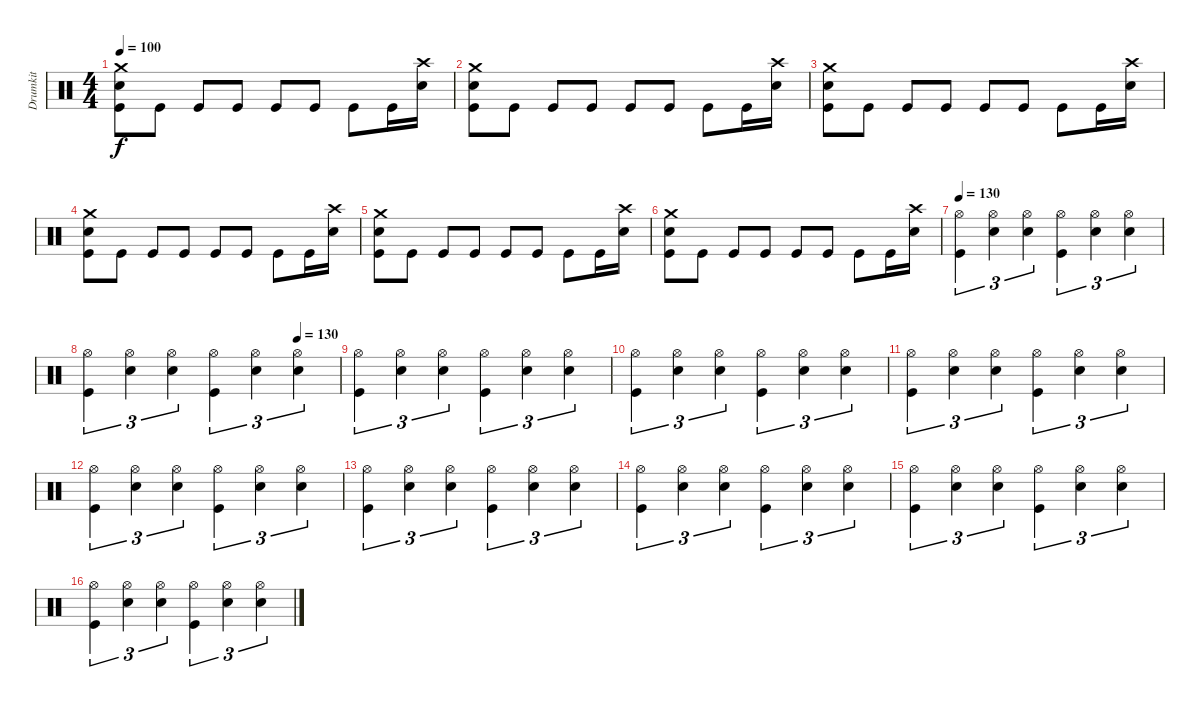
\track ("Drumkit" "Drumkit") {instrument percussion}
\staff {score}
\articulation defaults
\ts (4 4)
\tempo 100
\clef neutral
\ks c
("Crash medium (hit)" "Snare (hit) 2" "Kick (hit)").8{dy f} "Kick (hit)".8 "Kick (hit)".8 "Kick (hit)".8 "Kick (hit)".8 "Kick (hit)".8 "Kick (hit)".8 "Kick (hit)".16 ("Crash high (hit)" "Snare (hit) 2").16 |
("Crash medium (hit)" "Snare (hit) 2" "Kick (hit)").8 "Kick (hit)".8 "Kick (hit)".8 "Kick (hit)".8 "Kick (hit)".8 "Kick (hit)".8 "Kick (hit)".8 "Kick (hit)".16 ("Crash high (hit)" "Snare (hit) 2").16 |
("Crash medium (hit)" "Snare (hit) 2" "Kick (hit)").8 "Kick (hit)".8 "Kick (hit)".8 "Kick (hit)".8 "Kick (hit)".8 "Kick (hit)".8 "Kick (hit)".8 "Kick (hit)".16 ("Crash high (hit)" "Snare (hit) 2").16 |
("Crash medium (hit)" "Snare (hit) 2" "Kick (hit)").8 "Kick (hit)".8 "Kick (hit)".8 "Kick (hit)".8 "Kick (hit)".8 "Kick (hit)".8 "Kick (hit)".8 "Kick (hit)".16 ("Crash high (hit)" "Snare (hit) 2").16 |
("Crash medium (hit)" "Snare (hit) 2" "Kick (hit)").8 "Kick (hit)".8 "Kick (hit)".8 "Kick (hit)".8 "Kick (hit)".8 "Kick (hit)".8 "Kick (hit)".8 "Kick (hit)".16 ("Crash high (hit)" "Snare (hit) 2").16 |
("Crash medium (hit)" "Snare (hit) 2" "Kick (hit)").8 "Kick (hit)".8 "Kick (hit)".8 "Kick (hit)".8 "Kick (hit)".8 "Kick (hit)".8 "Kick (hit)".8 "Kick (hit)".16 ("Crash high (hit)" "Snare (hit) 2").16 |
\tempo 130
("Hi-Hat (open)" "Kick (hit)").4{tu (3 2)} ("Hi-Hat (open)" "Snare (hit) 2").4{tu (3 2)} ("Hi-Hat (open)" "Snare (hit) 2").4{tu (3 2)} ("Hi-Hat (open)" "Kick (hit)").4{tu (3 2)} ("Hi-Hat (open)" "Snare (hit) 2").4{tu (3 2)} ("Hi-Hat (open)" "Snare (hit) 2").4{tu (3 2)} |
\tempo (130 0.8333333333333334)
("Hi-Hat (open)" "Kick (hit)").4{tu (3 2)} ("Hi-Hat (open)" "Snare (hit) 2").4{tu (3 2)} ("Hi-Hat (open)" "Snare (hit) 2").4{tu (3 2)} ("Hi-Hat (open)" "Kick (hit)").4{tu (3 2)} ("Hi-Hat (open)" "Snare (hit) 2").4{tu (3 2)} ("Hi-Hat (open)" "Snare (hit) 2").4{tu (3 2)} |
("Hi-Hat (open)" "Kick (hit)").4{tu (3 2)} ("Hi-Hat (open)" "Snare (hit) 2").4{tu (3 2)} ("Hi-Hat (open)" "Snare (hit) 2").4{tu (3 2)} ("Hi-Hat (open)" "Kick (hit)").4{tu (3 2)} ("Hi-Hat (open)" "Snare (hit) 2").4{tu (3 2)} ("Hi-Hat (open)" "Snare (hit) 2").4{tu (3 2)} |
("Hi-Hat (open)" "Kick (hit)").4{tu (3 2)} ("Hi-Hat (open)" "Snare (hit) 2").4{tu (3 2)} ("Hi-Hat (open)" "Snare (hit) 2").4{tu (3 2)} ("Hi-Hat (open)" "Kick (hit)").4{tu (3 2)} ("Hi-Hat (open)" "Snare (hit) 2").4{tu (3 2)} ("Hi-Hat (open)" "Snare (hit) 2").4{tu (3 2)} |
("Hi-Hat (open)" "Kick (hit)").4{tu (3 2)} ("Hi-Hat (open)" "Snare (hit) 2").4{tu (3 2)} ("Hi-Hat (open)" "Snare (hit) 2").4{tu (3 2)} ("Hi-Hat (open)" "Kick (hit)").4{tu (3 2)} ("Hi-Hat (open)" "Snare (hit) 2").4{tu (3 2)} ("Hi-Hat (open)" "Snare (hit) 2").4{tu (3 2)} |
("Hi-Hat (open)" "Kick (hit)").4{tu (3 2)} ("Hi-Hat (open)" "Snare (hit) 2").4{tu (3 2)} ("Hi-Hat (open)" "Snare (hit) 2").4{tu (3 2)} ("Hi-Hat (open)" "Kick (hit)").4{tu (3 2)} ("Hi-Hat (open)" "Snare (hit) 2").4{tu (3 2)} ("Hi-Hat (open)" "Snare (hit) 2").4{tu (3 2)} |
("Hi-Hat (open)" "Kick (hit)").4{tu (3 2)} ("Hi-Hat (open)" "Snare (hit) 2").4{tu (3 2)} ("Hi-Hat (open)" "Snare (hit) 2").4{tu (3 2)} ("Hi-Hat (open)" "Kick (hit)").4{tu (3 2)} ("Hi-Hat (open)" "Snare (hit) 2").4{tu (3 2)} ("Hi-Hat (open)" "Snare (hit) 2").4{tu (3 2)} |
("Hi-Hat (open)" "Kick (hit)").4{tu (3 2)} ("Hi-Hat (open)" "Snare (hit) 2").4{tu (3 2)} ("Hi-Hat (open)" "Snare (hit) 2").4{tu (3 2)} ("Hi-Hat (open)" "Kick (hit)").4{tu (3 2)} ("Hi-Hat (open)" "Snare (hit) 2").4{tu (3 2)} ("Hi-Hat (open)" "Snare (hit) 2").4{tu (3 2)} |
("Hi-Hat (open)" "Kick (hit)").4{tu (3 2)} ("Hi-Hat (open)" "Snare (hit) 2").4{tu (3 2)} ("Hi-Hat (open)" "Snare (hit) 2").4{tu (3 2)} ("Hi-Hat (open)" "Kick (hit)").4{tu (3 2)} ("Hi-Hat (open)" "Snare (hit) 2").4{tu (3 2)} ("Hi-Hat (open)" "Snare (hit) 2").4{tu (3 2)} |
("Hi-Hat (open)" "Kick (hit)").4{tu (3 2)} ("Hi-Hat (open)" "Snare (hit) 2").4{tu (3 2)} ("Hi-Hat (open)" "Snare (hit) 2").4{tu (3 2)} ("Hi-Hat (open)" "Kick (hit)").4{tu (3 2)} ("Hi-Hat (open)" "Snare (hit) 2").4{tu (3 2)} ("Hi-Hat (open)" "Snare (hit) 2").4{tu (3 2)}
